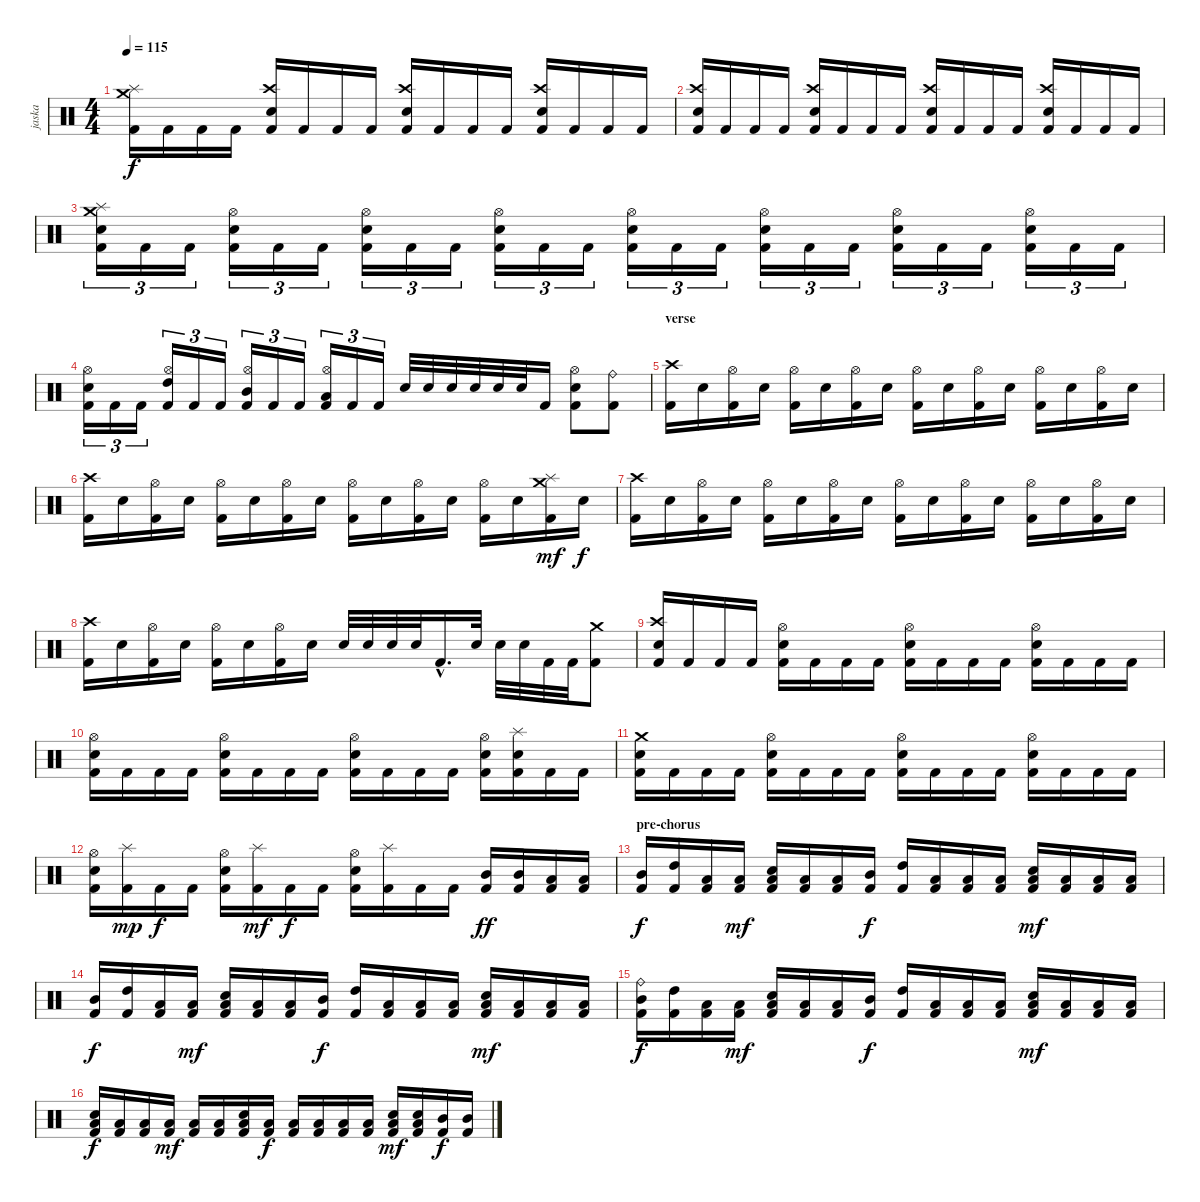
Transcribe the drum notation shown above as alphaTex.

\track ("jaska" "jaska") {instrument percussion}
\staff {score}
\articulation defaults
\ts (4 4)
\tempo 115
\clef neutral
\ks c
("Crash medium (hit)" "Splash (hit)" "Kick (hit) 2").16{dy f} "Kick (hit) 2".16 "Kick (hit) 2".16 "Kick (hit) 2".16 ("Crash high (hit)" "Electric Snare (hit)" "Kick (hit) 2").16 "Kick (hit) 2".16 "Kick (hit) 2".16 "Kick (hit) 2".16 ("Crash high (hit)" "Electric Snare (hit)" "Kick (hit) 2").16 "Kick (hit) 2".16 "Kick (hit) 2".16 "Kick (hit) 2".16 ("Crash high (hit)" "Electric Snare (hit)" "Kick (hit) 2").16 "Kick (hit) 2".16 "Kick (hit) 2".16 "Kick (hit) 2".16 |
("Crash high (hit)" "Electric Snare (hit)" "Kick (hit) 2").16 "Kick (hit) 2".16 "Kick (hit) 2".16 "Kick (hit) 2".16 ("Crash high (hit)" "Electric Snare (hit)" "Kick (hit) 2").16 "Kick (hit) 2".16 "Kick (hit) 2".16 "Kick (hit) 2".16 ("Crash high (hit)" "Electric Snare (hit)" "Kick (hit) 2").16 "Kick (hit) 2".16 "Kick (hit) 2".16 "Kick (hit) 2".16 ("Crash high (hit)" "Electric Snare (hit)" "Kick (hit) 2").16 "Kick (hit) 2".16 "Kick (hit) 2".16 "Kick (hit) 2".16 |
("Crash medium (hit)" "Splash (hit)" "Electric Snare (hit)" "Kick (hit) 2").16{tu (3 2)} "Kick (hit) 2".16{tu (3 2)} "Kick (hit) 2".16{tu (3 2)} ("Hi-Hat (open)" "Electric Snare (hit)" "Kick (hit) 2").16{tu (3 2)} "Kick (hit) 2".16{tu (3 2)} "Kick (hit) 2".16{tu (3 2)} ("Hi-Hat (open)" "Electric Snare (hit)" "Kick (hit) 2").16{tu (3 2)} "Kick (hit) 2".16{tu (3 2)} "Kick (hit) 2".16{tu (3 2)} ("Hi-Hat (open)" "Electric Snare (hit)" "Kick (hit) 2").16{tu (3 2)} "Kick (hit) 2".16{tu (3 2)} "Kick (hit) 2".16{tu (3 2)} ("Hi-Hat (open)" "Electric Snare (hit)" "Kick (hit) 2").16{tu (3 2)} "Kick (hit) 2".16{tu (3 2)} "Kick (hit) 2".16{tu (3 2)} ("Hi-Hat (open)" "Electric Snare (hit)" "Kick (hit) 2").16{tu (3 2)} "Kick (hit) 2".16{tu (3 2)} "Kick (hit) 2".16{tu (3 2)} ("Hi-Hat (open)" "Electric Snare (hit)" "Kick (hit) 2").16{tu (3 2)} "Kick (hit) 2".16{tu (3 2)} "Kick (hit) 2".16{tu (3 2)} ("Hi-Hat (open)" "Electric Snare (hit)" "Kick (hit) 2").16{tu (3 2)} "Kick (hit) 2".16{tu (3 2)} "Kick (hit) 2".16{tu (3 2)} |
("Hi-Hat (open)" "Electric Snare (hit)" "Kick (hit) 2").16{tu (3 2)} "Kick (hit) 2".16{tu (3 2)} "Kick (hit) 2".16{tu (3 2)} ("Hi-Hat (open)" "High Tom (hit)" "Kick (hit) 2").16{tu (3 2)} "Kick (hit) 2".16{tu (3 2)} "Kick (hit) 2".16{tu (3 2)} ("Hi-Hat (open)" "Mid Tom (hit)" "Kick (hit) 2").16{tu (3 2)} "Kick (hit) 2".16{tu (3 2)} "Kick (hit) 2".16{tu (3 2)} ("Hi-Hat (open)" "Low Tom (hit)" "Kick (hit) 2").16{tu (3 2)} "Kick (hit) 2".16{tu (3 2)} "Kick (hit) 2".16{tu (3 2)} "Electric Snare (hit)".32 "Electric Snare (hit)".32 "Electric Snare (hit)".32 "Electric Snare (hit)".32 "Electric Snare (hit)".32 "Electric Snare (hit)".32 "Kick (hit) 2".16 ("Hi-Hat (open)" "Electric Snare (hit)" "Kick (hit) 2").8 ("Ride (bell)" "Kick (hit) 2").8 |
\section ("" "verse")
("Crash high (hit)" "Kick (hit) 2").16 "Electric Snare (hit)".16 ("Hi-Hat (open)" "Kick (hit) 2").16 "Electric Snare (hit)".16 ("Hi-Hat (open)" "Kick (hit) 2").16 "Electric Snare (hit)".16 ("Hi-Hat (open)" "Kick (hit) 2").16 "Electric Snare (hit)".16 ("Hi-Hat (open)" "Kick (hit) 2").16 "Electric Snare (hit)".16 ("Hi-Hat (open)" "Kick (hit) 2").16 "Electric Snare (hit)".16 ("Hi-Hat (open)" "Kick (hit) 2").16 "Electric Snare (hit)".16 ("Hi-Hat (open)" "Kick (hit) 2").16 "Electric Snare (hit)".16 |
("Crash high (hit)" "Kick (hit) 2").16 "Electric Snare (hit)".16 ("Hi-Hat (open)" "Kick (hit) 2").16 "Electric Snare (hit)".16 ("Hi-Hat (open)" "Kick (hit) 2").16 "Electric Snare (hit)".16 ("Hi-Hat (open)" "Kick (hit) 2").16 "Electric Snare (hit)".16 ("Hi-Hat (open)" "Kick (hit) 2").16 "Electric Snare (hit)".16 ("Hi-Hat (open)" "Kick (hit) 2").16 "Electric Snare (hit)".16 ("Hi-Hat (open)" "Kick (hit) 2").16 "Electric Snare (hit)".16 ("Crash medium (hit)" "Splash (hit)" "Kick (hit) 2").16{dy mf} "Electric Snare (hit)".16{dy f} |
("Crash high (hit)" "Kick (hit) 2").16 "Electric Snare (hit)".16 ("Hi-Hat (open)" "Kick (hit) 2").16 "Electric Snare (hit)".16 ("Hi-Hat (open)" "Kick (hit) 2").16 "Electric Snare (hit)".16 ("Hi-Hat (open)" "Kick (hit) 2").16 "Electric Snare (hit)".16 ("Hi-Hat (open)" "Kick (hit) 2").16 "Electric Snare (hit)".16 ("Hi-Hat (open)" "Kick (hit) 2").16 "Electric Snare (hit)".16 ("Hi-Hat (open)" "Kick (hit) 2").16 "Electric Snare (hit)".16 ("Hi-Hat (open)" "Kick (hit) 2").16 "Electric Snare (hit)".16 |
("Crash high (hit)" "Kick (hit) 2").16 "Electric Snare (hit)".16 ("Hi-Hat (open)" "Kick (hit) 2").16 "Electric Snare (hit)".16 ("Hi-Hat (open)" "Kick (hit) 2").16 "Electric Snare (hit)".16 ("Hi-Hat (open)" "Kick (hit) 2").16 "Electric Snare (hit)".16 "Electric Snare (hit)".32 "Electric Snare (hit)".32 "Electric Snare (hit)".32 "Electric Snare (hit)".32 "Kick (hit) 2"{hac}.16{d} "Electric Snare (hit)".32 "Electric Snare (hit)".32 "Electric Snare (hit)".32 "Kick (hit) 2".32 "Kick (hit) 2".32 ("Crash medium (hit)" "Kick (hit) 2").8 |
("Crash high (hit)" "Electric Snare (hit)" "Kick (hit) 2").16 "Kick (hit) 2".16 "Kick (hit) 2".16 "Kick (hit) 2".16 ("Hi-Hat (open)" "Electric Snare (hit)" "Kick (hit) 2").16 "Kick (hit) 2".16 "Kick (hit) 2".16 "Kick (hit) 2".16 ("Hi-Hat (open)" "Electric Snare (hit)" "Kick (hit) 2").16 "Kick (hit) 2".16 "Kick (hit) 2".16 "Kick (hit) 2".16 ("Hi-Hat (open)" "Electric Snare (hit)" "Kick (hit) 2").16 "Kick (hit) 2".16 "Kick (hit) 2".16 "Kick (hit) 2".16 |
("Hi-Hat (open)" "Electric Snare (hit)" "Kick (hit) 2").16 "Kick (hit) 2".16 "Kick (hit) 2".16 "Kick (hit) 2".16 ("Hi-Hat (open)" "Electric Snare (hit)" "Kick (hit) 2").16 "Kick (hit) 2".16 "Kick (hit) 2".16 "Kick (hit) 2".16 ("Hi-Hat (open)" "Electric Snare (hit)" "Kick (hit) 2").16 "Kick (hit) 2".16 "Kick (hit) 2".16 "Kick (hit) 2".16 ("Hi-Hat (open)" "Electric Snare (hit)" "Kick (hit) 2").16 ("Splash (hit)" "Electric Snare (hit)" "Kick (hit) 2").16 "Kick (hit) 2".16 "Kick (hit) 2".16 |
("Crash medium (hit)" "Electric Snare (hit)" "Kick (hit) 2").16 "Kick (hit) 2".16 "Kick (hit) 2".16 "Kick (hit) 2".16 ("Hi-Hat (open)" "Electric Snare (hit)" "Kick (hit) 2").16 "Kick (hit) 2".16 "Kick (hit) 2".16 "Kick (hit) 2".16 ("Hi-Hat (open)" "Electric Snare (hit)" "Kick (hit) 2").16 "Kick (hit) 2".16 "Kick (hit) 2".16 "Kick (hit) 2".16 ("Hi-Hat (open)" "Electric Snare (hit)" "Kick (hit) 2").16 "Kick (hit) 2".16 "Kick (hit) 2".16 "Kick (hit) 2".16 |
("Hi-Hat (open)" "Electric Snare (hit)" "Kick (hit) 2").16 ("Splash (hit)" "Kick (hit) 2").16{dy mp} "Kick (hit) 2".16{dy f} "Kick (hit) 2".16 ("Hi-Hat (open)" "Electric Snare (hit)" "Kick (hit) 2").16 ("Splash (hit)" "Kick (hit) 2").16{dy mf} "Kick (hit) 2".16{dy f} "Kick (hit) 2".16 ("Hi-Hat (open)" "Electric Snare (hit)" "Kick (hit) 2").16 ("Splash (hit)" "Kick (hit) 2").16 "Kick (hit) 2".16 "Kick (hit) 2".16 ("Mid Tom (hit)" "Kick (hit) 2").16{dy ff} ("Mid Tom (hit)" "Kick (hit) 2").16 ("Low Tom (hit)" "Kick (hit) 2").16 ("Low Tom (hit)" "Kick (hit) 2").16 |
\section ("" "pre-chorus")
("Mid Tom (hit)" "Kick (hit) 2").16{dy f} ("High Tom (hit)" "Kick (hit) 2").16 ("Low Tom (hit)" "Kick (hit) 2").16 ("Low Tom (hit)" "Kick (hit) 2").16{dy mf} ("Electric Snare (hit)" "Low Tom (hit)" "Kick (hit) 2").16 ("Low Tom (hit)" "Kick (hit) 2").16 ("Low Tom (hit)" "Kick (hit) 2").16 ("Mid Tom (hit)" "Kick (hit) 2").16{dy f} ("High Tom (hit)" "Kick (hit) 2").16 ("Low Tom (hit)" "Kick (hit) 2").16 ("Low Tom (hit)" "Kick (hit) 2").16 ("Low Tom (hit)" "Kick (hit) 2").16 ("Electric Snare (hit)" "Low Tom (hit)" "Kick (hit) 2").16{dy mf} ("Low Tom (hit)" "Kick (hit) 2").16 ("Low Tom (hit)" "Kick (hit) 2").16 ("Low Tom (hit)" "Kick (hit) 2").16 |
("Mid Tom (hit)" "Kick (hit) 2").16{dy f} ("High Tom (hit)" "Kick (hit) 2").16 ("Low Tom (hit)" "Kick (hit) 2").16 ("Low Tom (hit)" "Kick (hit) 2").16{dy mf} ("Electric Snare (hit)" "Low Tom (hit)" "Kick (hit) 2").16 ("Low Tom (hit)" "Kick (hit) 2").16 ("Low Tom (hit)" "Kick (hit) 2").16 ("Mid Tom (hit)" "Kick (hit) 2").16{dy f} ("High Tom (hit)" "Kick (hit) 2").16 ("Low Tom (hit)" "Kick (hit) 2").16 ("Low Tom (hit)" "Kick (hit) 2").16 ("Low Tom (hit)" "Kick (hit) 2").16 ("Electric Snare (hit)" "Low Tom (hit)" "Kick (hit) 2").16{dy mf} ("Low Tom (hit)" "Kick (hit) 2").16 ("Low Tom (hit)" "Kick (hit) 2").16 ("Low Tom (hit)" "Kick (hit) 2").16 |
("Ride (bell)" "Mid Tom (hit)" "Kick (hit) 2").16{dy f} ("High Tom (hit)" "Kick (hit) 2").16 ("Low Tom (hit)" "Kick (hit) 2").16 ("Low Tom (hit)" "Kick (hit) 2").16{dy mf} ("Electric Snare (hit)" "Low Tom (hit)" "Kick (hit) 2").16 ("Low Tom (hit)" "Kick (hit) 2").16 ("Low Tom (hit)" "Kick (hit) 2").16 ("Mid Tom (hit)" "Kick (hit) 2").16{dy f} ("High Tom (hit)" "Kick (hit) 2").16 ("Low Tom (hit)" "Kick (hit) 2").16 ("Low Tom (hit)" "Kick (hit) 2").16 ("Low Tom (hit)" "Kick (hit) 2").16 ("Electric Snare (hit)" "Low Tom (hit)" "Kick (hit) 2").16{dy mf} ("Low Tom (hit)" "Kick (hit) 2").16 ("Low Tom (hit)" "Kick (hit) 2").16 ("Low Tom (hit)" "Kick (hit) 2").16 |
("Electric Snare (hit)" "Low Tom (hit)" "Kick (hit) 2").16{dy f} ("Low Tom (hit)" "Kick (hit) 2").16 ("Low Tom (hit)" "Kick (hit) 2").16 ("Low Tom (hit)" "Kick (hit) 2").16{dy mf} ("Low Tom (hit)" "Kick (hit) 2").16 ("Low Tom (hit)" "Kick (hit) 2").16 ("Electric Snare (hit)" "Low Tom (hit)" "Kick (hit) 2").16 ("Low Tom (hit)" "Kick (hit) 2").16{dy f} ("Low Tom (hit)" "Kick (hit) 2").16 ("Low Tom (hit)" "Kick (hit) 2").16 ("Low Tom (hit)" "Kick (hit) 2").16 ("Low Tom (hit)" "Kick (hit) 2").16 ("Electric Snare (hit)" "Low Tom (hit)" "Kick (hit) 2").16{dy mf} ("Electric Snare (hit)" "Low Tom (hit)" "Kick (hit) 2").16 ("Mid Tom (hit)" "Kick (hit) 2").16{dy f} ("Mid Tom (hit)" "Kick (hit) 2").16
